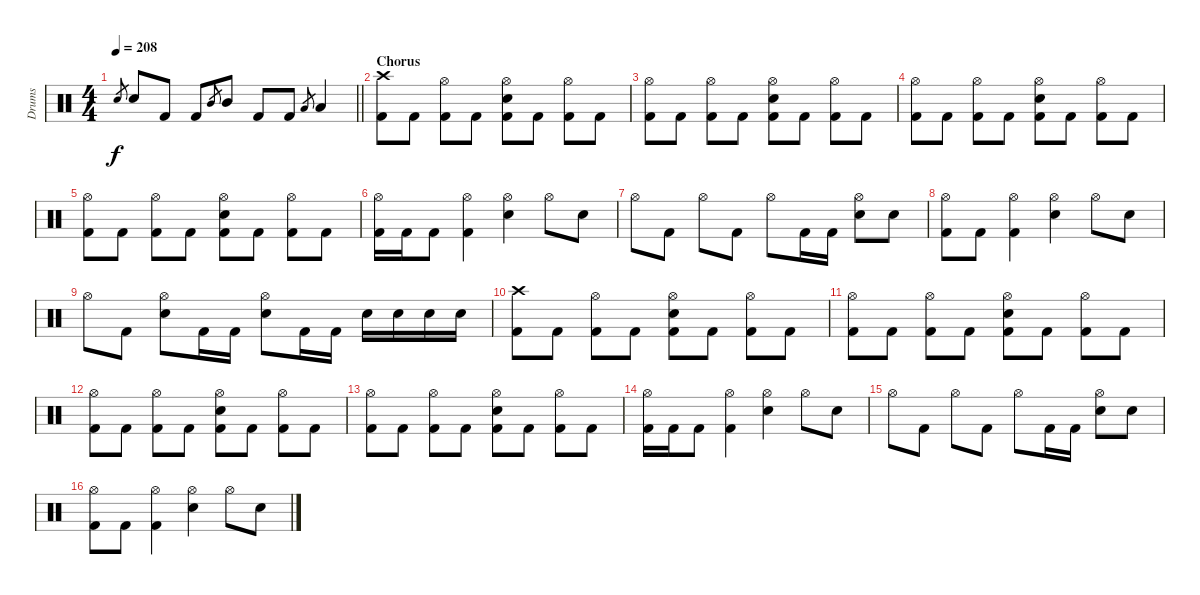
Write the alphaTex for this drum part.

\track ("Drums" "Drums") {instrument percussion}
\staff {score}
\articulation defaults
\ts (4 4)
\tempo 208
\clef neutral
\barLineRight lightlight
\ks c "Snare (hit) 2".8{gr dy f} "Snare (hit) 2".8 "Kick (hit) 2".8 "Kick (hit) 2".8 "Mid Tom (hit)".8{gr} "Mid Tom (hit)".8 "Kick (hit) 2".8 "Kick (hit) 2".8 "Low Tom (hit)".8{gr} "Low Tom (hit)".4
|
\section ("" "Chorus")
("Crash high (hit)" "Kick (hit) 2").8 "Kick (hit) 2".8 ("Hi-Hat (open)" "Kick (hit) 2").8 "Kick (hit) 2".8 ("Hi-Hat (open)" "Snare (hit) 2" "Kick (hit) 2").8 "Kick (hit) 2".8 ("Hi-Hat (open)" "Kick (hit) 2").8 "Kick (hit) 2".8 |
("Hi-Hat (open)" "Kick (hit) 2").8 "Kick (hit) 2".8 ("Hi-Hat (open)" "Kick (hit) 2").8 "Kick (hit) 2".8 ("Hi-Hat (open)" "Snare (hit) 2" "Kick (hit) 2").8 "Kick (hit) 2".8 ("Hi-Hat (open)" "Kick (hit) 2").8 "Kick (hit) 2".8 |
("Hi-Hat (open)" "Kick (hit) 2").8 "Kick (hit) 2".8 ("Hi-Hat (open)" "Kick (hit) 2").8 "Kick (hit) 2".8 ("Hi-Hat (open)" "Snare (hit) 2" "Kick (hit) 2").8 "Kick (hit) 2".8 ("Hi-Hat (open)" "Kick (hit) 2").8 "Kick (hit) 2".8 |
("Hi-Hat (open)" "Kick (hit) 2").8 "Kick (hit) 2".8 ("Hi-Hat (open)" "Kick (hit) 2").8 "Kick (hit) 2".8 ("Hi-Hat (open)" "Snare (hit) 2" "Kick (hit) 2").8 "Kick (hit) 2".8 ("Hi-Hat (open)" "Kick (hit) 2").8 "Kick (hit) 2".8 |
("Hi-Hat (open)" "Kick (hit) 2").16 "Kick (hit) 2".16 "Kick (hit) 2".8 ("Hi-Hat (open)" "Kick (hit) 2").4 ("Hi-Hat (open)" "Snare (hit) 2").4 "Hi-Hat (open)".8 "Snare (hit) 2".8 |
"Hi-Hat (open)".8 "Kick (hit) 2".8 "Hi-Hat (open)".8 "Kick (hit) 2".8 "Hi-Hat (open)".8 "Kick (hit) 2".16 "Kick (hit) 2".16 ("Hi-Hat (open)" "Snare (hit) 2").8 "Snare (hit) 2".8 |
("Hi-Hat (open)" "Kick (hit) 2").8 "Kick (hit) 2".8 ("Hi-Hat (open)" "Kick (hit) 2").4 ("Hi-Hat (open)" "Snare (hit) 2").4 "Hi-Hat (open)".8 "Snare (hit) 2".8 |
"Hi-Hat (open)".8 "Kick (hit) 2".8 ("Hi-Hat (open)" "Snare (hit) 2").8 "Kick (hit) 2".16 "Kick (hit) 2".16 ("Hi-Hat (open)" "Snare (hit) 2").8 "Kick (hit) 2".16 "Kick (hit) 2".16 "Snare (hit) 2".16 "Snare (hit) 2".16 "Snare (hit) 2".16 "Snare (hit) 2".16 |
("Crash high (hit)" "Kick (hit) 2").8 "Kick (hit) 2".8 ("Hi-Hat (open)" "Kick (hit) 2").8 "Kick (hit) 2".8 ("Hi-Hat (open)" "Snare (hit) 2" "Kick (hit) 2").8 "Kick (hit) 2".8 ("Hi-Hat (open)" "Kick (hit) 2").8 "Kick (hit) 2".8 |
("Hi-Hat (open)" "Kick (hit) 2").8 "Kick (hit) 2".8 ("Hi-Hat (open)" "Kick (hit) 2").8 "Kick (hit) 2".8 ("Hi-Hat (open)" "Snare (hit) 2" "Kick (hit) 2").8 "Kick (hit) 2".8 ("Hi-Hat (open)" "Kick (hit) 2").8 "Kick (hit) 2".8 |
("Hi-Hat (open)" "Kick (hit) 2").8 "Kick (hit) 2".8 ("Hi-Hat (open)" "Kick (hit) 2").8 "Kick (hit) 2".8 ("Hi-Hat (open)" "Snare (hit) 2" "Kick (hit) 2").8 "Kick (hit) 2".8 ("Hi-Hat (open)" "Kick (hit) 2").8 "Kick (hit) 2".8 |
("Hi-Hat (open)" "Kick (hit) 2").8 "Kick (hit) 2".8 ("Hi-Hat (open)" "Kick (hit) 2").8 "Kick (hit) 2".8 ("Hi-Hat (open)" "Snare (hit) 2" "Kick (hit) 2").8 "Kick (hit) 2".8 ("Hi-Hat (open)" "Kick (hit) 2").8 "Kick (hit) 2".8 |
("Hi-Hat (open)" "Kick (hit) 2").16 "Kick (hit) 2".16 "Kick (hit) 2".8 ("Hi-Hat (open)" "Kick (hit) 2").4 ("Hi-Hat (open)" "Snare (hit) 2").4 "Hi-Hat (open)".8 "Snare (hit) 2".8 |
"Hi-Hat (open)".8 "Kick (hit) 2".8 "Hi-Hat (open)".8 "Kick (hit) 2".8 "Hi-Hat (open)".8 "Kick (hit) 2".16 "Kick (hit) 2".16 ("Hi-Hat (open)" "Snare (hit) 2").8 "Snare (hit) 2".8 |
("Hi-Hat (open)" "Kick (hit) 2").8 "Kick (hit) 2".8 ("Hi-Hat (open)" "Kick (hit) 2").4 ("Hi-Hat (open)" "Snare (hit) 2").4 "Hi-Hat (open)".8 "Snare (hit) 2".8
